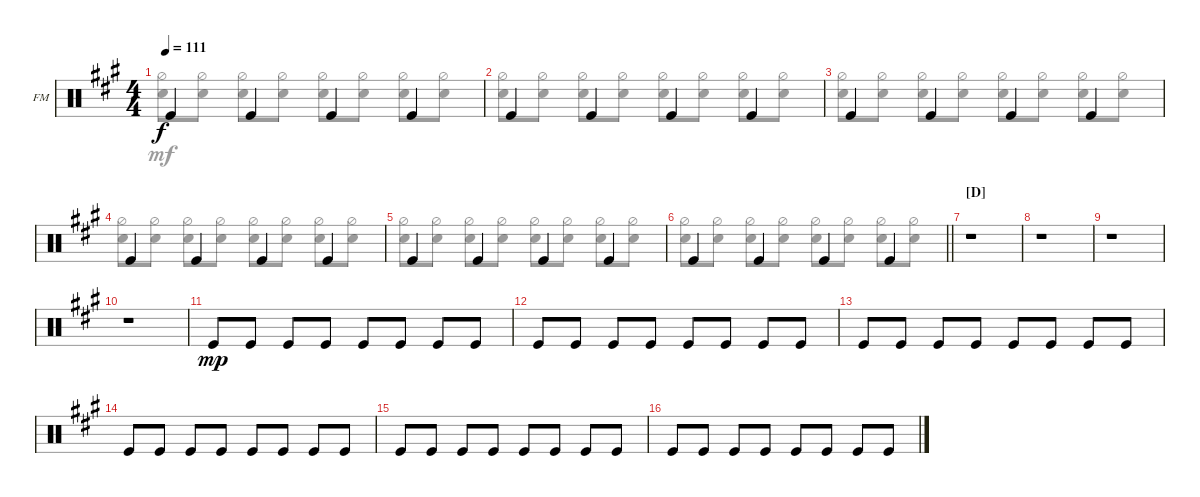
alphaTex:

\defaultSystemsLayout 4
\bracketExtendMode groupsimilarinstruments
\firstSystemTrackNameOrientation horizontal
\otherSystemsTrackNameOrientation horizontal
\track ("Fabrizio Moretti" "FM") {instrument percussion}
\staff {score}
\articulation defaults
\voice
\ts (4 4)
\tempo 111
\clef neutral
\ks a "Kick (hit)".4{dy f} "Kick (hit)".4 "Kick (hit)".4 "Kick (hit)".4
|
"Kick (hit)".4 "Kick (hit)".4 "Kick (hit)".4 "Kick (hit)".4 |
"Kick (hit)".4 "Kick (hit)".4 "Kick (hit)".4 "Kick (hit)".4 |
"Kick (hit)".4 "Kick (hit)".4 "Kick (hit)".4 "Kick (hit)".4 |
"Kick (hit)".4 "Kick (hit)".4 "Kick (hit)".4 "Kick (hit)".4 |
\barLineRight lightlight "Kick (hit)".4 "Kick (hit)".4 "Kick (hit)".4 "Kick (hit)".4
|
\section ("D" "")
r.1 |
r.1 |
r.1 |
r.1 |
"Kick (hit)".8{dy mp} "Kick (hit)".8 "Kick (hit)".8 "Kick (hit)".8 "Kick (hit)".8 "Kick (hit)".8 "Kick (hit)".8 "Kick (hit)".8 |
"Kick (hit)".8 "Kick (hit)".8 "Kick (hit)".8 "Kick (hit)".8 "Kick (hit)".8 "Kick (hit)".8 "Kick (hit)".8 "Kick (hit)".8 |
"Kick (hit)".8 "Kick (hit)".8 "Kick (hit)".8 "Kick (hit)".8 "Kick (hit)".8 "Kick (hit)".8 "Kick (hit)".8 "Kick (hit)".8 |
"Kick (hit)".8 "Kick (hit)".8 "Kick (hit)".8 "Kick (hit)".8 "Kick (hit)".8 "Kick (hit)".8 "Kick (hit)".8 "Kick (hit)".8 |
"Kick (hit)".8 "Kick (hit)".8 "Kick (hit)".8 "Kick (hit)".8 "Kick (hit)".8 "Kick (hit)".8 "Kick (hit)".8 "Kick (hit)".8 |
"Kick (hit)".8 "Kick (hit)".8 "Kick (hit)".8 "Kick (hit)".8 "Kick (hit)".8 "Kick (hit)".8 "Kick (hit)".8 "Kick (hit)".8
\voice
\clef neutral
\ottava regular
\simile none
\ks a
("Snare (hit) 2" "Hi-Hat (half)").8{dy mf} ("Snare (hit) 2" "Hi-Hat (half)").8 ("Snare (hit) 2" "Hi-Hat (half)").8 ("Snare (hit) 2" "Hi-Hat (half)").8 ("Snare (hit) 2" "Hi-Hat (half)").8 ("Snare (hit) 2" "Hi-Hat (half)").8 ("Snare (hit) 2" "Hi-Hat (half)").8 ("Snare (hit) 2" "Hi-Hat (half)").8 |
("Snare (hit) 2" "Hi-Hat (half)").8 ("Snare (hit) 2" "Hi-Hat (half)").8 ("Snare (hit) 2" "Hi-Hat (half)").8 ("Snare (hit) 2" "Hi-Hat (half)").8 ("Snare (hit) 2" "Hi-Hat (half)").8 ("Snare (hit) 2" "Hi-Hat (half)").8 ("Snare (hit) 2" "Hi-Hat (half)").8 ("Snare (hit) 2" "Hi-Hat (half)").8 |
("Snare (hit) 2" "Hi-Hat (half)").8 ("Snare (hit) 2" "Hi-Hat (half)").8 ("Snare (hit) 2" "Hi-Hat (half)").8 ("Snare (hit) 2" "Hi-Hat (half)").8 ("Snare (hit) 2" "Hi-Hat (half)").8 ("Snare (hit) 2" "Hi-Hat (half)").8 ("Snare (hit) 2" "Hi-Hat (half)").8 ("Snare (hit) 2" "Hi-Hat (half)").8 |
("Snare (hit) 2" "Hi-Hat (half)").8 ("Snare (hit) 2" "Hi-Hat (half)").8 ("Snare (hit) 2" "Hi-Hat (half)").8 ("Snare (hit) 2" "Hi-Hat (half)").8 ("Snare (hit) 2" "Hi-Hat (half)").8 ("Snare (hit) 2" "Hi-Hat (half)").8 ("Snare (hit) 2" "Hi-Hat (half)").8 ("Snare (hit) 2" "Hi-Hat (half)").8 |
("Snare (hit) 2" "Hi-Hat (half)").8 ("Snare (hit) 2" "Hi-Hat (half)").8 ("Snare (hit) 2" "Hi-Hat (half)").8 ("Snare (hit) 2" "Hi-Hat (half)").8 ("Snare (hit) 2" "Hi-Hat (half)").8 ("Snare (hit) 2" "Hi-Hat (half)").8 ("Snare (hit) 2" "Hi-Hat (half)").8 ("Snare (hit) 2" "Hi-Hat (half)").8 |
\barLineRight lightlight
("Snare (hit) 2" "Hi-Hat (half)").8 ("Snare (hit) 2" "Hi-Hat (half)").8 ("Snare (hit) 2" "Hi-Hat (half)").8 ("Snare (hit) 2" "Hi-Hat (half)").8 ("Snare (hit) 2" "Hi-Hat (half)").8 ("Snare (hit) 2" "Hi-Hat (half)").8 ("Snare (hit) 2" "Hi-Hat (half)").8 ("Snare (hit) 2" "Hi-Hat (half)").8 |
|
|
|
|
|
|
|
|
|
